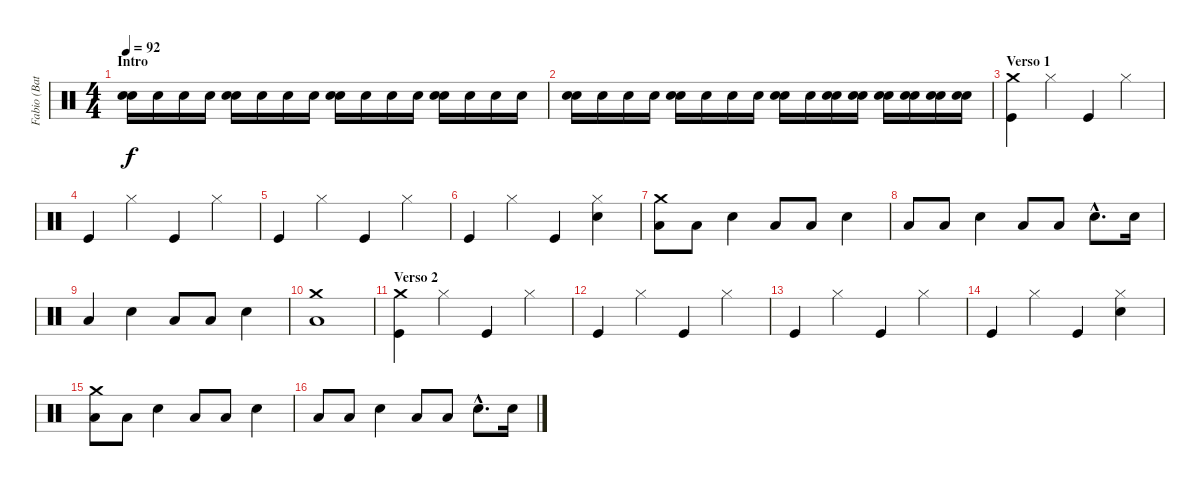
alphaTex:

\track ("Fabio (Batteria)" "Fabio (Bat") {instrument percussion}
\staff {score}
\articulation defaults
\ts (4 4)
\section ("" "Intro")
\tempo 92
\clef neutral
\ks c
("Electric Snare (hit)" "Snare (hit) 2").16{dy f} "Snare (hit) 2".16 "Snare (hit) 2".16 "Snare (hit) 2".16 ("Electric Snare (hit)" "Snare (hit) 2").16 "Snare (hit) 2".16 "Snare (hit) 2".16 "Snare (hit) 2".16 ("Electric Snare (hit)" "Snare (hit) 2").16 "Snare (hit) 2".16 "Snare (hit) 2".16 "Snare (hit) 2".16 ("Electric Snare (hit)" "Snare (hit) 2").16 "Snare (hit) 2".16 "Snare (hit) 2".16 "Snare (hit) 2".16 |
("Electric Snare (hit)" "Snare (hit) 2").16 "Snare (hit) 2".16 "Snare (hit) 2".16 "Snare (hit) 2".16 ("Electric Snare (hit)" "Snare (hit) 2").16 "Snare (hit) 2".16 "Snare (hit) 2".16 "Snare (hit) 2".16 ("Electric Snare (hit)" "Snare (hit) 2").16 "Snare (hit) 2".16 ("Electric Snare (hit)" "Snare (hit) 2").16 ("Electric Snare (hit)" "Snare (hit) 2").16 ("Electric Snare (hit)" "Snare (hit) 2").16 ("Electric Snare (hit)" "Snare (hit) 2").16 ("Electric Snare (hit)" "Snare (hit) 2").16 ("Electric Snare (hit)" "Snare (hit) 2").16 |
\section ("" "Verso 1")
("Crash medium (hit)" "Kick (hit)").4 "Hi-Hat (closed)".4 "Kick (hit)".4 "Hi-Hat (closed)".4 |
"Kick (hit)".4 "Hi-Hat (closed)".4 "Kick (hit)".4 "Hi-Hat (closed)".4 |
"Kick (hit)".4 "Hi-Hat (closed)".4 "Kick (hit)".4 "Hi-Hat (closed)".4 |
"Kick (hit)".4 "Hi-Hat (closed)".4 "Kick (hit)".4 ("Snare (hit) 2" "Hi-Hat (closed)").4 |
("Crash medium (hit)" "Low Tom (hit)").8 "Low Tom (hit)".8 "Snare (hit) 2".4 "Low Tom (hit)".8 "Low Tom (hit)".8 "Snare (hit) 2".4 |
"Low Tom (hit)".8 "Low Tom (hit)".8 "Snare (hit) 2".4 "Low Tom (hit)".8 "Low Tom (hit)".8 "Snare (hit) 2"{hac}.8{d} "Snare (hit) 2".16 |
"Low Tom (hit)".4 "Snare (hit) 2".4 "Low Tom (hit)".8 "Low Tom (hit)".8 "Snare (hit) 2".4 |
("Crash medium (hit)" "Low Tom (hit)").1 |
\section ("" "Verso 2")
("Crash medium (hit)" "Kick (hit)").4 "Hi-Hat (closed)".4 "Kick (hit)".4 "Hi-Hat (closed)".4 |
"Kick (hit)".4 "Hi-Hat (closed)".4 "Kick (hit)".4 "Hi-Hat (closed)".4 |
"Kick (hit)".4 "Hi-Hat (closed)".4 "Kick (hit)".4 "Hi-Hat (closed)".4 |
"Kick (hit)".4 "Hi-Hat (closed)".4 "Kick (hit)".4 ("Snare (hit) 2" "Hi-Hat (closed)").4 |
("Crash medium (hit)" "Low Tom (hit)").8 "Low Tom (hit)".8 "Snare (hit) 2".4 "Low Tom (hit)".8 "Low Tom (hit)".8 "Snare (hit) 2".4 |
"Low Tom (hit)".8 "Low Tom (hit)".8 "Snare (hit) 2".4 "Low Tom (hit)".8 "Low Tom (hit)".8 "Snare (hit) 2"{hac}.8{d} "Snare (hit) 2".16
